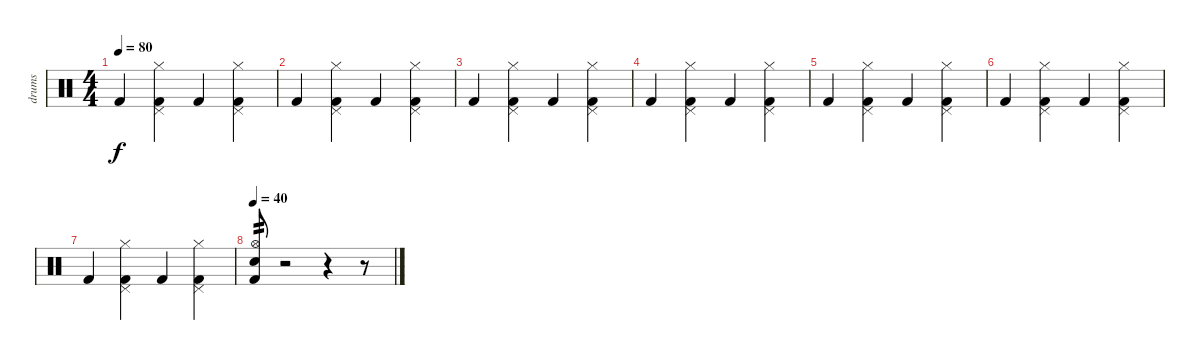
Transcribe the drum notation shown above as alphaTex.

\track ("drums" "drums") {instrument percussion}
\staff {score}
\articulation defaults
\ts (4 4)
\tempo 80
\clef neutral
\ks c "Kick (hit) 2".4{dy f}
("Kick (hit) 2" "Pedal Hi-Hat (hit)" "Hi-Hat (closed)").4 "Kick (hit) 2".4 ("Kick (hit) 2" "Pedal Hi-Hat (hit)" "Hi-Hat (closed)").4 |
"Kick (hit) 2".4 ("Kick (hit) 2" "Pedal Hi-Hat (hit)" "Hi-Hat (closed)").4 "Kick (hit) 2".4 ("Kick (hit) 2" "Pedal Hi-Hat (hit)" "Hi-Hat (closed)").4 |
"Kick (hit) 2".4 ("Kick (hit) 2" "Pedal Hi-Hat (hit)" "Hi-Hat (closed)").4 "Kick (hit) 2".4 ("Kick (hit) 2" "Pedal Hi-Hat (hit)" "Hi-Hat (closed)").4 |
"Kick (hit) 2".4 ("Kick (hit) 2" "Pedal Hi-Hat (hit)" "Hi-Hat (closed)").4 "Kick (hit) 2".4 ("Kick (hit) 2" "Pedal Hi-Hat (hit)" "Hi-Hat (closed)").4 |
"Kick (hit) 2".4 ("Kick (hit) 2" "Pedal Hi-Hat (hit)" "Hi-Hat (closed)").4 "Kick (hit) 2".4 ("Kick (hit) 2" "Pedal Hi-Hat (hit)" "Hi-Hat (closed)").4 |
"Kick (hit) 2".4 ("Kick (hit) 2" "Pedal Hi-Hat (hit)" "Hi-Hat (closed)").4 "Kick (hit) 2".4 ("Kick (hit) 2" "Pedal Hi-Hat (hit)" "Hi-Hat (closed)").4 |
"Kick (hit) 2".4 ("Kick (hit) 2" "Pedal Hi-Hat (hit)" "Hi-Hat (closed)").4 "Kick (hit) 2".4 ("Kick (hit) 2" "Pedal Hi-Hat (hit)" "Hi-Hat (closed)").4 |
\tempo 40
("Kick (hit) 2" "Hi-Hat (open)" "Electric Snare (hit)").8{tp 2} r.2 r.4 r.8
